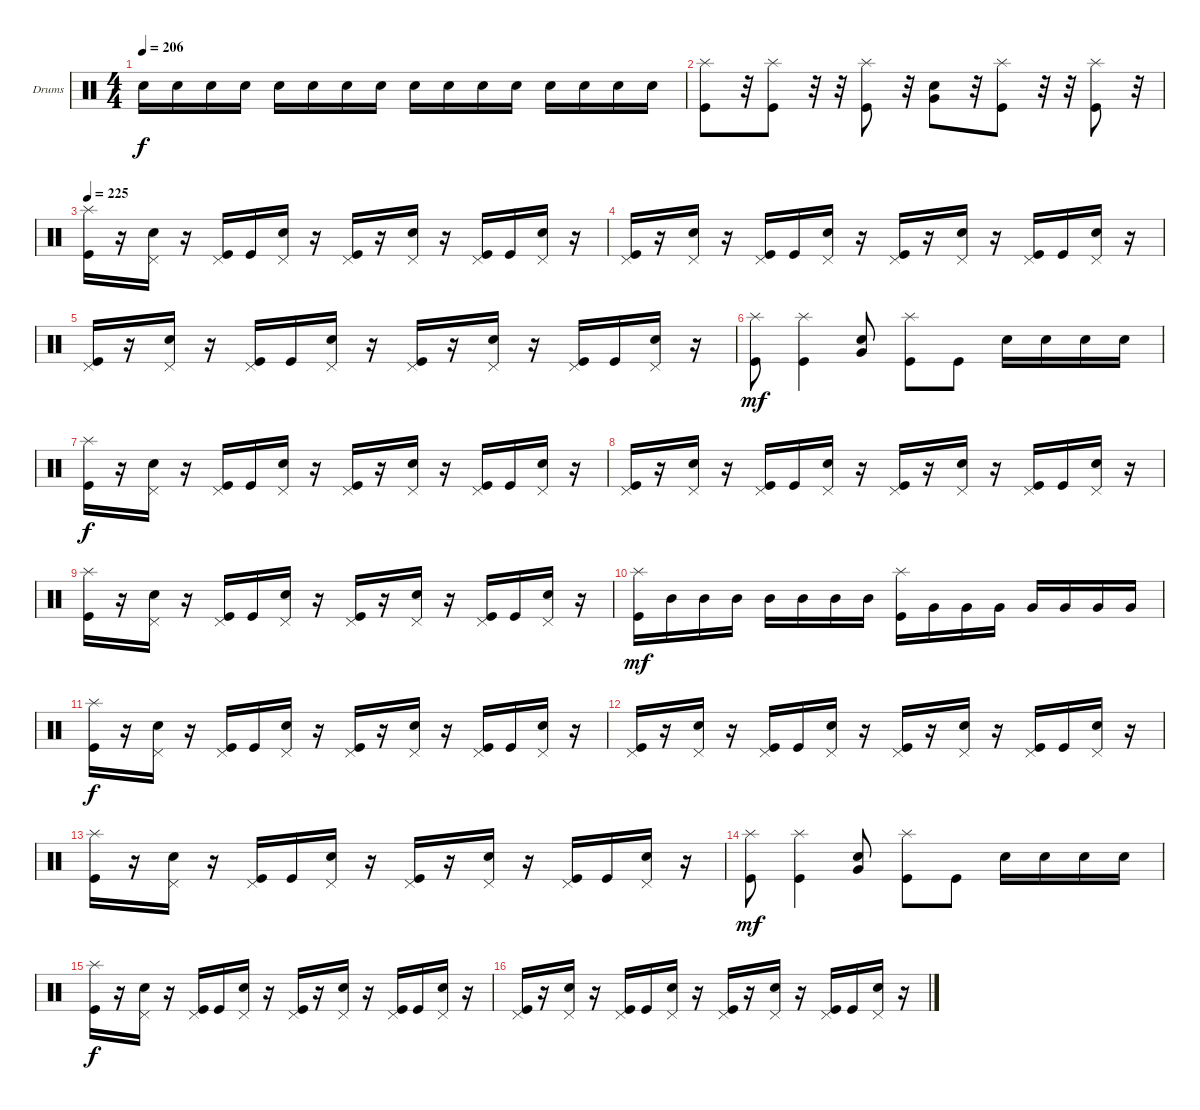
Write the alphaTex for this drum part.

\bracketExtendMode groupsimilarinstruments
\firstSystemTrackNameOrientation horizontal
\otherSystemsTrackNameOrientation horizontal
\track ("Drumkit" "Drums") {instrument percussion}
\staff {score}
\articulation defaults
\ts (4 4)
\tempo 206
\clef neutral
\scale
0.333333
\ks c "Snare (hit) 2".16{dy f} "Snare (hit) 2".16 "Snare (hit) 2".16 "Snare (hit) 2".16 "Snare (hit) 2".16 "Snare (hit) 2".16 "Snare (hit) 2".16 "Snare (hit) 2".16 "Snare (hit) 2".16 "Snare (hit) 2".16 "Snare (hit) 2".16 "Snare (hit) 2".16 "Snare (hit) 2".16 "Snare (hit) 2".16 "Snare (hit) 2".16 "Snare (hit) 2".16
|
\scale
0.333333 ("Kick (hit)" "Splash (hit)").8 r.32 ("Splash (hit)" "Kick (hit)").8 r.32 r.32 ("Splash (hit)" "Kick (hit)").8 r.32 ("Snare (hit) 2" "Very Low Tom (hit)").8 r.32 ("Splash (hit)" "Kick (hit)").8 r.32 r.32 ("Splash (hit)" "Kick (hit)").8 r.32 |
\tempo 225
\scale
0.333333 ("Kick (hit)" "Splash (hit)").16 r.16 ("Pedal Hi-Hat (hit)" "Snare (hit) 2").16 r.16 ("Pedal Hi-Hat (hit)" "Kick (hit)").16 "Kick (hit)".16 ("Pedal Hi-Hat (hit)" "Snare (hit) 2").16 r.16 ("Pedal Hi-Hat (hit)" "Kick (hit)").16 r.16 ("Pedal Hi-Hat (hit)" "Snare (hit) 2").16 r.16 ("Pedal Hi-Hat (hit)" "Kick (hit)").16 "Kick (hit)".16 ("Pedal Hi-Hat (hit)" "Snare (hit) 2").16 r.16 |
\scale
0.333333 ("Kick (hit)" "Pedal Hi-Hat (hit)").16 r.16 ("Pedal Hi-Hat (hit)" "Snare (hit) 2").16 r.16 ("Pedal Hi-Hat (hit)" "Kick (hit)").16 "Kick (hit)".16 ("Pedal Hi-Hat (hit)" "Snare (hit) 2").16 r.16 ("Pedal Hi-Hat (hit)" "Kick (hit)").16 r.16 ("Pedal Hi-Hat (hit)" "Snare (hit) 2").16 r.16 ("Pedal Hi-Hat (hit)" "Kick (hit)").16 "Kick (hit)".16 ("Pedal Hi-Hat (hit)" "Snare (hit) 2").16 r.16 |
\scale
0.333333 ("Kick (hit)" "Pedal Hi-Hat (hit)").16 r.16 ("Pedal Hi-Hat (hit)" "Snare (hit) 2").16 r.16 ("Pedal Hi-Hat (hit)" "Kick (hit)").16 "Kick (hit)".16 ("Pedal Hi-Hat (hit)" "Snare (hit) 2").16 r.16 ("Pedal Hi-Hat (hit)" "Kick (hit)").16 r.16 ("Pedal Hi-Hat (hit)" "Snare (hit) 2").16 r.16 ("Pedal Hi-Hat (hit)" "Kick (hit)").16 "Kick (hit)".16 ("Pedal Hi-Hat (hit)" "Snare (hit) 2").16 r.16 |
\scale
0.333333 ("Splash (hit)" "Kick (hit)").8{dy mf} ("Kick (hit)" "Splash (hit)").4 ("Snare (hit) 2" "Very Low Tom (hit)").8 ("Kick (hit)" "Splash (hit)").8 "Kick (hit)".8 "Snare (hit) 2".16 "Snare (hit) 2".16 "Snare (hit) 2".16 "Snare (hit) 2".16 |
\scale
0.333333 ("Kick (hit)" "Splash (hit)").16{dy f} r.16 ("Pedal Hi-Hat (hit)" "Snare (hit) 2").16 r.16 ("Pedal Hi-Hat (hit)" "Kick (hit)").16 "Kick (hit)".16 ("Pedal Hi-Hat (hit)" "Snare (hit) 2").16 r.16 ("Pedal Hi-Hat (hit)" "Kick (hit)").16 r.16 ("Pedal Hi-Hat (hit)" "Snare (hit) 2").16 r.16 ("Pedal Hi-Hat (hit)" "Kick (hit)").16 "Kick (hit)".16 ("Pedal Hi-Hat (hit)" "Snare (hit) 2").16 r.16 |
\scale
0.333333 ("Kick (hit)" "Pedal Hi-Hat (hit)").16 r.16 ("Pedal Hi-Hat (hit)" "Snare (hit) 2").16 r.16 ("Pedal Hi-Hat (hit)" "Kick (hit)").16 "Kick (hit)".16 ("Pedal Hi-Hat (hit)" "Snare (hit) 2").16 r.16 ("Pedal Hi-Hat (hit)" "Kick (hit)").16 r.16 ("Pedal Hi-Hat (hit)" "Snare (hit) 2").16 r.16 ("Pedal Hi-Hat (hit)" "Kick (hit)").16 "Kick (hit)".16 ("Pedal Hi-Hat (hit)" "Snare (hit) 2").16 r.16 |
\scale
0.333333 ("Kick (hit)" "Splash (hit)").16 r.16 ("Pedal Hi-Hat (hit)" "Snare (hit) 2").16 r.16 ("Pedal Hi-Hat (hit)" "Kick (hit)").16 "Kick (hit)".16 ("Pedal Hi-Hat (hit)" "Snare (hit) 2").16 r.16 ("Pedal Hi-Hat (hit)" "Kick (hit)").16 r.16 ("Pedal Hi-Hat (hit)" "Snare (hit) 2").16 r.16 ("Pedal Hi-Hat (hit)" "Kick (hit)").16 "Kick (hit)".16 ("Pedal Hi-Hat (hit)" "Snare (hit) 2").16 r.16 |
\scale
0.333333 ("Kick (hit)" "Splash (hit)").16{dy mf} "Mid Tom (hit)".16 "Mid Tom (hit)".16 "Mid Tom (hit)".16 "Mid Tom (hit)".16 "Mid Tom (hit)".16 "Mid Tom (hit)".16 "Mid Tom (hit)".16 ("Kick (hit)" "Splash (hit)").16 "Very Low Tom (hit)".16 "Very Low Tom (hit)".16 "Very Low Tom (hit)".16 "Very Low Tom (hit)".16 "Very Low Tom (hit)".16 "Very Low Tom (hit)".16 "Very Low Tom (hit)".16 |
\scale
0.333333 ("Kick (hit)" "Splash (hit)").16{dy f} r.16 ("Pedal Hi-Hat (hit)" "Snare (hit) 2").16 r.16 ("Pedal Hi-Hat (hit)" "Kick (hit)").16 "Kick (hit)".16 ("Pedal Hi-Hat (hit)" "Snare (hit) 2").16 r.16 ("Pedal Hi-Hat (hit)" "Kick (hit)").16 r.16 ("Pedal Hi-Hat (hit)" "Snare (hit) 2").16 r.16 ("Pedal Hi-Hat (hit)" "Kick (hit)").16 "Kick (hit)".16 ("Pedal Hi-Hat (hit)" "Snare (hit) 2").16 r.16 |
\scale
0.333333 ("Kick (hit)" "Pedal Hi-Hat (hit)").16 r.16 ("Pedal Hi-Hat (hit)" "Snare (hit) 2").16 r.16 ("Pedal Hi-Hat (hit)" "Kick (hit)").16 "Kick (hit)".16 ("Pedal Hi-Hat (hit)" "Snare (hit) 2").16 r.16 ("Pedal Hi-Hat (hit)" "Kick (hit)").16 r.16 ("Pedal Hi-Hat (hit)" "Snare (hit) 2").16 r.16 ("Pedal Hi-Hat (hit)" "Kick (hit)").16 "Kick (hit)".16 ("Pedal Hi-Hat (hit)" "Snare (hit) 2").16 r.16 |
\scale
0.333333 ("Kick (hit)" "Splash (hit)").16 r.16 ("Pedal Hi-Hat (hit)" "Snare (hit) 2").16 r.16 ("Pedal Hi-Hat (hit)" "Kick (hit)").16 "Kick (hit)".16 ("Pedal Hi-Hat (hit)" "Snare (hit) 2").16 r.16 ("Pedal Hi-Hat (hit)" "Kick (hit)").16 r.16 ("Pedal Hi-Hat (hit)" "Snare (hit) 2").16 r.16 ("Pedal Hi-Hat (hit)" "Kick (hit)").16 "Kick (hit)".16 ("Pedal Hi-Hat (hit)" "Snare (hit) 2").16 r.16 |
\scale
0.333333 ("Splash (hit)" "Kick (hit)").8{dy mf} ("Kick (hit)" "Splash (hit)").4 ("Snare (hit) 2" "Very Low Tom (hit)").8 ("Kick (hit)" "Splash (hit)").8 "Kick (hit)".8 "Snare (hit) 2".16 "Snare (hit) 2".16 "Snare (hit) 2".16 "Snare (hit) 2".16 |
\scale
0.333333 ("Kick (hit)" "Splash (hit)").16{dy f} r.16 ("Pedal Hi-Hat (hit)" "Snare (hit) 2").16 r.16 ("Pedal Hi-Hat (hit)" "Kick (hit)").16 "Kick (hit)".16 ("Pedal Hi-Hat (hit)" "Snare (hit) 2").16 r.16 ("Pedal Hi-Hat (hit)" "Kick (hit)").16 r.16 ("Pedal Hi-Hat (hit)" "Snare (hit) 2").16 r.16 ("Pedal Hi-Hat (hit)" "Kick (hit)").16 "Kick (hit)".16 ("Pedal Hi-Hat (hit)" "Snare (hit) 2").16 r.16 |
\scale
0.333333 ("Kick (hit)" "Pedal Hi-Hat (hit)").16 r.16 ("Pedal Hi-Hat (hit)" "Snare (hit) 2").16 r.16 ("Pedal Hi-Hat (hit)" "Kick (hit)").16 "Kick (hit)".16 ("Pedal Hi-Hat (hit)" "Snare (hit) 2").16 r.16 ("Pedal Hi-Hat (hit)" "Kick (hit)").16 r.16 ("Pedal Hi-Hat (hit)" "Snare (hit) 2").16 r.16 ("Pedal Hi-Hat (hit)" "Kick (hit)").16 "Kick (hit)".16 ("Pedal Hi-Hat (hit)" "Snare (hit) 2").16 r.16
